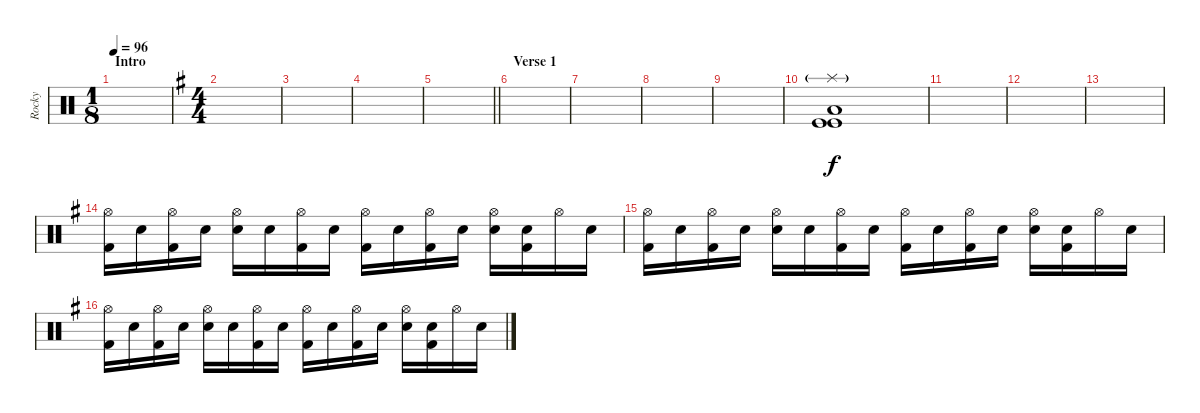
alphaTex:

\track ("Rocky" "Rocky") {instrument percussion}
\staff {score}
\articulation defaults
\ts (1 8)
\section ("" "Intro")
\tempo 96
\clef neutral
\ks c
|
\ts (4 4)
\ks g
|
|
|
\barLineRight lightlight
|
\section ("" "Verse 1")
|
|
|
|
("Splash (hit)"{g} "Low Tom (hit)" "Kick (hit)" "Kick (hit)").1{volume 10} |
|
|
|
("Hi-Hat (open)" "Kick (hit) 2").16{dy f} "Snare (hit)".16 ("Hi-Hat (open)" "Kick (hit) 2").16 "Snare (hit)".16 ("Hi-Hat (open)" "Snare (hit) 2").16 "Snare (hit)".16 ("Hi-Hat (open)" "Kick (hit) 2").16 "Snare (hit)".16 ("Hi-Hat (open)" "Kick (hit) 2").16 "Snare (hit)".16 ("Hi-Hat (open)" "Kick (hit) 2").16 "Snare (hit)".16 ("Hi-Hat (open)" "Snare (hit) 2").16 ("Snare (hit)" "Kick (hit) 2").16 "Hi-Hat (open)".16 "Snare (hit)".16 |
("Hi-Hat (open)" "Kick (hit) 2").16 "Snare (hit)".16 ("Hi-Hat (open)" "Kick (hit) 2").16 "Snare (hit)".16 ("Hi-Hat (open)" "Snare (hit) 2").16 "Snare (hit)".16 ("Hi-Hat (open)" "Kick (hit) 2").16 "Snare (hit)".16 ("Hi-Hat (open)" "Kick (hit) 2").16 "Snare (hit)".16 ("Hi-Hat (open)" "Kick (hit) 2").16 "Snare (hit)".16 ("Hi-Hat (open)" "Snare (hit) 2").16 ("Snare (hit)" "Kick (hit) 2").16 "Hi-Hat (open)".16 "Snare (hit)".16 |
("Hi-Hat (open)" "Kick (hit) 2").16 "Snare (hit)".16 ("Hi-Hat (open)" "Kick (hit) 2").16 "Snare (hit)".16 ("Hi-Hat (open)" "Snare (hit) 2").16 "Snare (hit)".16 ("Hi-Hat (open)" "Kick (hit) 2").16 "Snare (hit)".16 ("Hi-Hat (open)" "Kick (hit) 2").16 "Snare (hit)".16 ("Hi-Hat (open)" "Kick (hit) 2").16 "Snare (hit)".16 ("Hi-Hat (open)" "Snare (hit) 2").16 ("Snare (hit)" "Kick (hit) 2").16 "Hi-Hat (open)".16 "Snare (hit)".16
